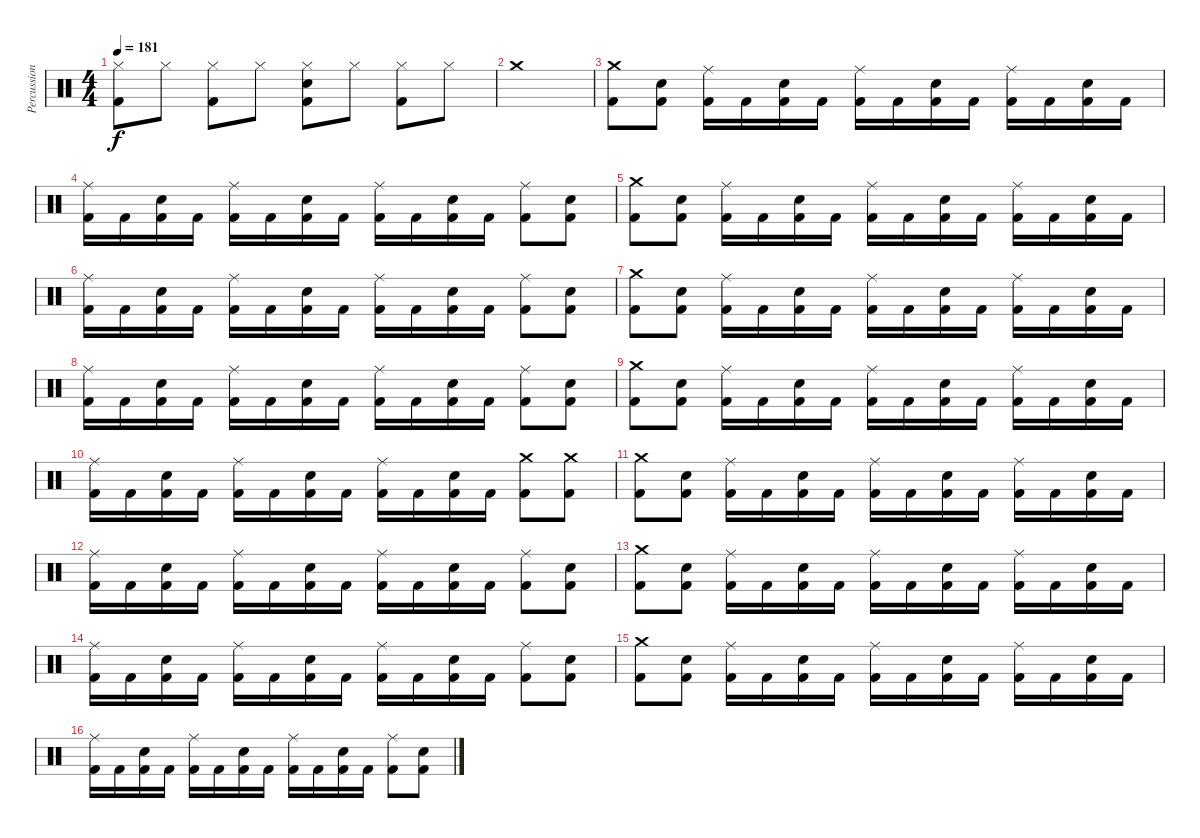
\track ("Percussion" "Percussion") {instrument percussion}
\staff {score}
\articulation defaults
\ts (4 4)
\tempo 181
\clef neutral
\ks c
("Hi-Hat (closed)" "Kick (hit) 2").8{dy f} "Hi-Hat (closed)".8 ("Hi-Hat (closed)" "Kick (hit) 2").8 "Hi-Hat (closed)".8 ("Hi-Hat (closed)" "Electric Snare (hit)" "Kick (hit) 2").8 "Hi-Hat (closed)".8 ("Hi-Hat (closed)" "Kick (hit) 2").8 "Hi-Hat (closed)".8 |
"Crash medium (hit)".1 |
("Crash medium (hit)" "Kick (hit) 2").8 ("Electric Snare (hit)" "Kick (hit) 2").8 ("Ride (middle)" "Kick (hit) 2").16 "Kick (hit) 2".16 ("Electric Snare (hit)" "Kick (hit) 2").16 "Kick (hit) 2".16 ("Ride (middle)" "Kick (hit) 2").16 "Kick (hit) 2".16 ("Electric Snare (hit)" "Kick (hit) 2").16 "Kick (hit) 2".16 ("Ride (middle)" "Kick (hit) 2").16 "Kick (hit) 2".16 ("Electric Snare (hit)" "Kick (hit) 2").16 "Kick (hit) 2".16 |
("Ride (middle)" "Kick (hit) 2").16 "Kick (hit) 2".16 ("Electric Snare (hit)" "Kick (hit) 2").16 "Kick (hit) 2".16 ("Ride (middle)" "Kick (hit) 2").16 "Kick (hit) 2".16 ("Electric Snare (hit)" "Kick (hit) 2").16 "Kick (hit) 2".16 ("Ride (middle)" "Kick (hit) 2").16 "Kick (hit) 2".16 ("Electric Snare (hit)" "Kick (hit) 2").16 "Kick (hit) 2".16 ("Ride (middle)" "Kick (hit) 2").8 ("Electric Snare (hit)" "Kick (hit) 2").8 |
("Crash medium (hit)" "Kick (hit) 2").8 ("Electric Snare (hit)" "Kick (hit) 2").8 ("Ride (middle)" "Kick (hit) 2").16 "Kick (hit) 2".16 ("Electric Snare (hit)" "Kick (hit) 2").16 "Kick (hit) 2".16 ("Ride (middle)" "Kick (hit) 2").16 "Kick (hit) 2".16 ("Electric Snare (hit)" "Kick (hit) 2").16 "Kick (hit) 2".16 ("Ride (middle)" "Kick (hit) 2").16 "Kick (hit) 2".16 ("Electric Snare (hit)" "Kick (hit) 2").16 "Kick (hit) 2".16 |
("Ride (middle)" "Kick (hit) 2").16 "Kick (hit) 2".16 ("Electric Snare (hit)" "Kick (hit) 2").16 "Kick (hit) 2".16 ("Ride (middle)" "Kick (hit) 2").16 "Kick (hit) 2".16 ("Electric Snare (hit)" "Kick (hit) 2").16 "Kick (hit) 2".16 ("Ride (middle)" "Kick (hit) 2").16 "Kick (hit) 2".16 ("Electric Snare (hit)" "Kick (hit) 2").16 "Kick (hit) 2".16 ("Ride (middle)" "Kick (hit) 2").8 ("Electric Snare (hit)" "Kick (hit) 2").8 |
("Crash medium (hit)" "Kick (hit) 2").8 ("Electric Snare (hit)" "Kick (hit) 2").8 ("Ride (middle)" "Kick (hit) 2").16 "Kick (hit) 2".16 ("Electric Snare (hit)" "Kick (hit) 2").16 "Kick (hit) 2".16 ("Ride (middle)" "Kick (hit) 2").16 "Kick (hit) 2".16 ("Electric Snare (hit)" "Kick (hit) 2").16 "Kick (hit) 2".16 ("Ride (middle)" "Kick (hit) 2").16 "Kick (hit) 2".16 ("Electric Snare (hit)" "Kick (hit) 2").16 "Kick (hit) 2".16 |
("Ride (middle)" "Kick (hit) 2").16 "Kick (hit) 2".16 ("Electric Snare (hit)" "Kick (hit) 2").16 "Kick (hit) 2".16 ("Ride (middle)" "Kick (hit) 2").16 "Kick (hit) 2".16 ("Electric Snare (hit)" "Kick (hit) 2").16 "Kick (hit) 2".16 ("Ride (middle)" "Kick (hit) 2").16 "Kick (hit) 2".16 ("Electric Snare (hit)" "Kick (hit) 2").16 "Kick (hit) 2".16 ("Ride (middle)" "Kick (hit) 2").8 ("Electric Snare (hit)" "Kick (hit) 2").8 |
("Crash medium (hit)" "Kick (hit) 2").8 ("Electric Snare (hit)" "Kick (hit) 2").8 ("Ride (middle)" "Kick (hit) 2").16 "Kick (hit) 2".16 ("Electric Snare (hit)" "Kick (hit) 2").16 "Kick (hit) 2".16 ("Ride (middle)" "Kick (hit) 2").16 "Kick (hit) 2".16 ("Electric Snare (hit)" "Kick (hit) 2").16 "Kick (hit) 2".16 ("Ride (middle)" "Kick (hit) 2").16 "Kick (hit) 2".16 ("Electric Snare (hit)" "Kick (hit) 2").16 "Kick (hit) 2".16 |
("Ride (middle)" "Kick (hit) 2").16 "Kick (hit) 2".16 ("Electric Snare (hit)" "Kick (hit) 2").16 "Kick (hit) 2".16 ("Ride (middle)" "Kick (hit) 2").16 "Kick (hit) 2".16 ("Electric Snare (hit)" "Kick (hit) 2").16 "Kick (hit) 2".16 ("Ride (middle)" "Kick (hit) 2").16 "Kick (hit) 2".16 ("Electric Snare (hit)" "Kick (hit) 2").16 "Kick (hit) 2".16 ("Crash medium (hit)" "Kick (hit) 2").8 ("Crash medium (hit)" "Kick (hit) 2").8 |
("Crash medium (hit)" "Kick (hit) 2").8 ("Electric Snare (hit)" "Kick (hit) 2").8 ("Ride (middle)" "Kick (hit) 2").16 "Kick (hit) 2".16 ("Electric Snare (hit)" "Kick (hit) 2").16 "Kick (hit) 2".16 ("Ride (middle)" "Kick (hit) 2").16 "Kick (hit) 2".16 ("Electric Snare (hit)" "Kick (hit) 2").16 "Kick (hit) 2".16 ("Ride (middle)" "Kick (hit) 2").16 "Kick (hit) 2".16 ("Electric Snare (hit)" "Kick (hit) 2").16 "Kick (hit) 2".16 |
("Ride (middle)" "Kick (hit) 2").16 "Kick (hit) 2".16 ("Electric Snare (hit)" "Kick (hit) 2").16 "Kick (hit) 2".16 ("Ride (middle)" "Kick (hit) 2").16 "Kick (hit) 2".16 ("Electric Snare (hit)" "Kick (hit) 2").16 "Kick (hit) 2".16 ("Ride (middle)" "Kick (hit) 2").16 "Kick (hit) 2".16 ("Electric Snare (hit)" "Kick (hit) 2").16 "Kick (hit) 2".16 ("Ride (middle)" "Kick (hit) 2").8 ("Electric Snare (hit)" "Kick (hit) 2").8 |
("Crash medium (hit)" "Kick (hit) 2").8 ("Electric Snare (hit)" "Kick (hit) 2").8 ("Ride (middle)" "Kick (hit) 2").16 "Kick (hit) 2".16 ("Electric Snare (hit)" "Kick (hit) 2").16 "Kick (hit) 2".16 ("Ride (middle)" "Kick (hit) 2").16 "Kick (hit) 2".16 ("Electric Snare (hit)" "Kick (hit) 2").16 "Kick (hit) 2".16 ("Ride (middle)" "Kick (hit) 2").16 "Kick (hit) 2".16 ("Electric Snare (hit)" "Kick (hit) 2").16 "Kick (hit) 2".16 |
("Ride (middle)" "Kick (hit) 2").16 "Kick (hit) 2".16 ("Electric Snare (hit)" "Kick (hit) 2").16 "Kick (hit) 2".16 ("Ride (middle)" "Kick (hit) 2").16 "Kick (hit) 2".16 ("Electric Snare (hit)" "Kick (hit) 2").16 "Kick (hit) 2".16 ("Ride (middle)" "Kick (hit) 2").16 "Kick (hit) 2".16 ("Electric Snare (hit)" "Kick (hit) 2").16 "Kick (hit) 2".16 ("Ride (middle)" "Kick (hit) 2").8 ("Electric Snare (hit)" "Kick (hit) 2").8 |
("Crash medium (hit)" "Kick (hit) 2").8 ("Electric Snare (hit)" "Kick (hit) 2").8 ("Ride (middle)" "Kick (hit) 2").16 "Kick (hit) 2".16 ("Electric Snare (hit)" "Kick (hit) 2").16 "Kick (hit) 2".16 ("Ride (middle)" "Kick (hit) 2").16 "Kick (hit) 2".16 ("Electric Snare (hit)" "Kick (hit) 2").16 "Kick (hit) 2".16 ("Ride (middle)" "Kick (hit) 2").16 "Kick (hit) 2".16 ("Electric Snare (hit)" "Kick (hit) 2").16 "Kick (hit) 2".16 |
("Ride (middle)" "Kick (hit) 2").16 "Kick (hit) 2".16 ("Electric Snare (hit)" "Kick (hit) 2").16 "Kick (hit) 2".16 ("Ride (middle)" "Kick (hit) 2").16 "Kick (hit) 2".16 ("Electric Snare (hit)" "Kick (hit) 2").16 "Kick (hit) 2".16 ("Ride (middle)" "Kick (hit) 2").16 "Kick (hit) 2".16 ("Electric Snare (hit)" "Kick (hit) 2").16 "Kick (hit) 2".16 ("Ride (middle)" "Kick (hit) 2").8 ("Electric Snare (hit)" "Kick (hit) 2").8
